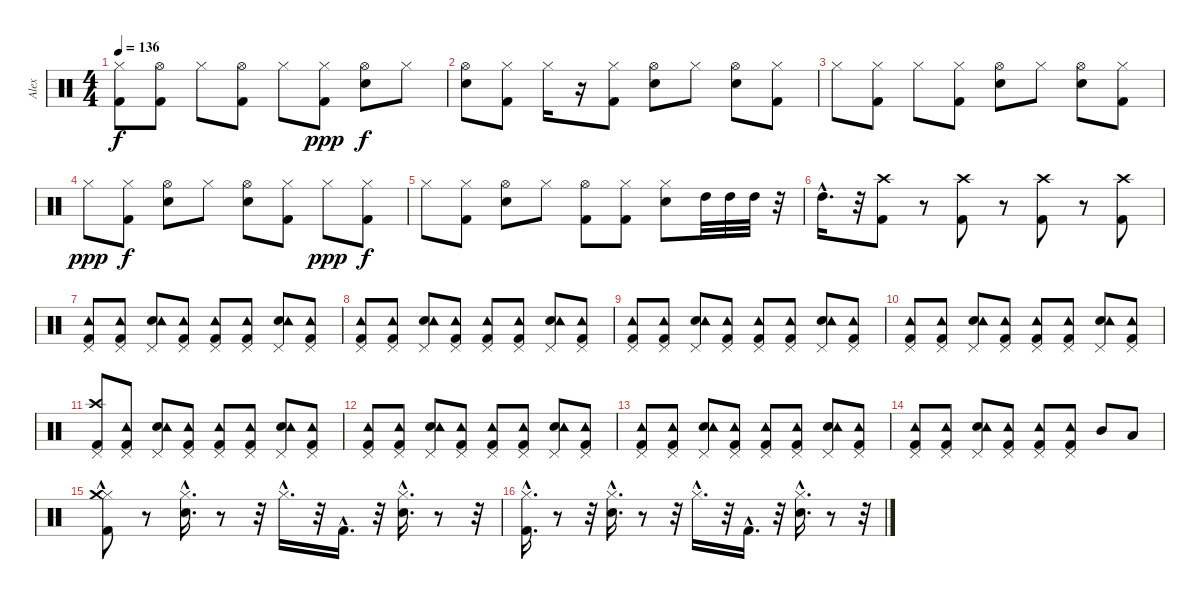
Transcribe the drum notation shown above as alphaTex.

\track ("Alex" "Alex") {instrument percussion}
\staff {score}
\articulation defaults
\ts (4 4)
\tempo 136
\clef neutral
\ks c
("Kick (hit) 2" "Hi-Hat (closed)").8{dy f} ("Kick (hit) 2" "Hi-Hat (open)").8 "Hi-Hat (closed)".8 ("Kick (hit) 2" "Hi-Hat (open)").8 "Hi-Hat (closed)".8 ("Hi-Hat (closed)" "Kick (hit) 2").8{dy ppp} ("Snare (hit) 2" "Hi-Hat (open)").8{dy f} "Hi-Hat (closed)".8 |
("Snare (hit) 2" "Hi-Hat (open)").8 ("Kick (hit) 2" "Hi-Hat (closed)").8 "Hi-Hat (closed)".16 r.16 ("Hi-Hat (closed)" "Kick (hit) 2").8 ("Hi-Hat (open)" "Snare (hit) 2").8 "Hi-Hat (closed)".8 ("Snare (hit) 2" "Hi-Hat (open)").8 ("Kick (hit) 2" "Hi-Hat (closed)").8 |
"Hi-Hat (closed)".8 ("Hi-Hat (closed)" "Kick (hit) 2").8 "Hi-Hat (closed)".8 ("Hi-Hat (closed)" "Kick (hit) 2").8 ("Hi-Hat (open)" "Snare (hit) 2").8 "Hi-Hat (closed)".8 ("Hi-Hat (open)" "Snare (hit) 2").8 ("Hi-Hat (closed)" "Kick (hit) 2").8 |
"Hi-Hat (closed)".8{dy ppp} ("Hi-Hat (closed)" "Kick (hit) 2").8{dy f} ("Snare (hit) 2" "Hi-Hat (open)").8 "Hi-Hat (closed)".8 ("Hi-Hat (open)" "Snare (hit) 2").8 ("Hi-Hat (closed)" "Kick (hit) 2").8 "Hi-Hat (closed)".8{dy ppp} ("Hi-Hat (closed)" "Kick (hit) 2").8{dy f} |
"Hi-Hat (closed)".8 ("Hi-Hat (closed)" "Kick (hit) 2").8 ("Snare (hit) 2" "Hi-Hat (open)").8 "Hi-Hat (closed)".8 ("Hi-Hat (open)" "Kick (hit) 2").8 ("Hi-Hat (closed)" "Kick (hit) 2").8 ("Hi-Hat (closed)" "Snare (hit) 2").8 "High Tom (hit)".32 "High Tom (hit)".32 "High Tom (hit)".32 r.32 |
"High Tom (hit)"{hac}.16{d} r.32 ("Kick (hit) 2" "Crash high (hit)").8 r.8 ("Crash high (hit)" "Kick (hit) 2").8 r.8 ("Crash high (hit)" "Kick (hit) 2").8 r.8 ("Crash high (hit)" "Kick (hit) 2").8 |
("Kick (hit) 2" "Pedal Hi-Hat (hit)" "Tambourine (hit)").8 ("Kick (hit) 2" "Pedal Hi-Hat (hit)" "Tambourine (hit)").8 ("Snare (hit) 2" "Pedal Hi-Hat (hit)" "Tambourine (hit)").8 ("Kick (hit) 2" "Pedal Hi-Hat (hit)" "Tambourine (hit)").8 ("Kick (hit) 2" "Pedal Hi-Hat (hit)" "Tambourine (hit)").8 ("Kick (hit) 2" "Pedal Hi-Hat (hit)" "Tambourine (hit)").8 ("Pedal Hi-Hat (hit)" "Snare (hit) 2" "Tambourine (hit)").8 ("Kick (hit) 2" "Pedal Hi-Hat (hit)" "Tambourine (hit)").8 |
("Kick (hit) 2" "Pedal Hi-Hat (hit)" "Tambourine (hit)").8 ("Kick (hit) 2" "Pedal Hi-Hat (hit)" "Tambourine (hit)").8 ("Snare (hit) 2" "Pedal Hi-Hat (hit)" "Tambourine (hit)").8 ("Kick (hit) 2" "Pedal Hi-Hat (hit)" "Tambourine (hit)").8 ("Kick (hit) 2" "Pedal Hi-Hat (hit)" "Tambourine (hit)").8 ("Kick (hit) 2" "Pedal Hi-Hat (hit)" "Tambourine (hit)").8 ("Snare (hit) 2" "Pedal Hi-Hat (hit)" "Tambourine (hit)").8 ("Kick (hit) 2" "Pedal Hi-Hat (hit)" "Tambourine (hit)").8 |
("Kick (hit) 2" "Pedal Hi-Hat (hit)" "Tambourine (hit)").8 ("Kick (hit) 2" "Pedal Hi-Hat (hit)" "Tambourine (hit)").8 ("Snare (hit) 2" "Pedal Hi-Hat (hit)" "Tambourine (hit)").8 ("Kick (hit) 2" "Pedal Hi-Hat (hit)" "Tambourine (hit)").8 ("Pedal Hi-Hat (hit)" "Kick (hit) 2" "Tambourine (hit)").8 ("Kick (hit) 2" "Pedal Hi-Hat (hit)" "Tambourine (hit)").8 ("Snare (hit) 2" "Pedal Hi-Hat (hit)" "Tambourine (hit)").8 ("Kick (hit) 2" "Pedal Hi-Hat (hit)" "Tambourine (hit)").8 |
("Kick (hit) 2" "Pedal Hi-Hat (hit)" "Tambourine (hit)").8 ("Kick (hit) 2" "Pedal Hi-Hat (hit)" "Tambourine (hit)").8 ("Snare (hit) 2" "Pedal Hi-Hat (hit)" "Tambourine (hit)").8 ("Kick (hit) 2" "Pedal Hi-Hat (hit)" "Tambourine (hit)").8 ("Kick (hit) 2" "Pedal Hi-Hat (hit)" "Tambourine (hit)").8 ("Kick (hit) 2" "Pedal Hi-Hat (hit)" "Tambourine (hit)").8 ("Snare (hit) 2" "Pedal Hi-Hat (hit)" "Tambourine (hit)").8 ("Kick (hit) 2" "Pedal Hi-Hat (hit)" "Tambourine (hit)").8 |
("Kick (hit) 2" "Crash high (hit)" "Pedal Hi-Hat (hit)").8 ("Kick (hit) 2" "Pedal Hi-Hat (hit)" "Tambourine (hit)").8 ("Snare (hit) 2" "Pedal Hi-Hat (hit)" "Tambourine (hit)").8 ("Kick (hit) 2" "Pedal Hi-Hat (hit)" "Tambourine (hit)").8 ("Kick (hit) 2" "Pedal Hi-Hat (hit)" "Tambourine (hit)").8 ("Kick (hit) 2" "Pedal Hi-Hat (hit)" "Tambourine (hit)").8 ("Snare (hit) 2" "Pedal Hi-Hat (hit)" "Tambourine (hit)").8 ("Kick (hit) 2" "Pedal Hi-Hat (hit)" "Tambourine (hit)").8 |
("Kick (hit) 2" "Pedal Hi-Hat (hit)" "Tambourine (hit)").8 ("Kick (hit) 2" "Pedal Hi-Hat (hit)" "Tambourine (hit)").8 ("Snare (hit) 2" "Pedal Hi-Hat (hit)" "Tambourine (hit)").8 ("Kick (hit) 2" "Pedal Hi-Hat (hit)" "Tambourine (hit)").8 ("Kick (hit) 2" "Pedal Hi-Hat (hit)" "Tambourine (hit)").8 ("Kick (hit) 2" "Pedal Hi-Hat (hit)" "Tambourine (hit)").8 ("Snare (hit) 2" "Pedal Hi-Hat (hit)" "Tambourine (hit)").8 ("Kick (hit) 2" "Pedal Hi-Hat (hit)" "Tambourine (hit)").8 |
("Kick (hit) 2" "Pedal Hi-Hat (hit)" "Tambourine (hit)").8 ("Kick (hit) 2" "Pedal Hi-Hat (hit)" "Tambourine (hit)").8 ("Snare (hit) 2" "Pedal Hi-Hat (hit)" "Tambourine (hit)").8 ("Kick (hit) 2" "Pedal Hi-Hat (hit)" "Tambourine (hit)").8 ("Kick (hit) 2" "Pedal Hi-Hat (hit)" "Tambourine (hit)").8 ("Kick (hit) 2" "Pedal Hi-Hat (hit)" "Tambourine (hit)").8 ("Snare (hit) 2" "Pedal Hi-Hat (hit)" "Tambourine (hit)").8 ("Kick (hit) 2" "Pedal Hi-Hat (hit)" "Tambourine (hit)").8 |
("Kick (hit) 2" "Pedal Hi-Hat (hit)" "Tambourine (hit)").8 ("Kick (hit) 2" "Pedal Hi-Hat (hit)" "Tambourine (hit)").8 ("Snare (hit) 2" "Pedal Hi-Hat (hit)" "Tambourine (hit)").8 ("Kick (hit) 2" "Pedal Hi-Hat (hit)" "Tambourine (hit)").8 ("Kick (hit) 2" "Pedal Hi-Hat (hit)" "Tambourine (hit)").8 ("Kick (hit) 2" "Pedal Hi-Hat (hit)" "Tambourine (hit)").8 "Mid Tom (hit)".8 "Low Tom (hit)".8 |
("Hi-Hat (closed)"{hac} "Kick (hit) 2" "Crash medium (hit)").8 r.8 ("Hi-Hat (closed)"{hac} "Snare (hit) 2"{hac}).16{d} r.8 r.32 "Hi-Hat (closed)"{hac}.16{d} r.32 "Kick (hit) 2"{hac}.16{d} r.32 ("Hi-Hat (closed)"{hac} "Snare (hit) 2"{hac}).16{d} r.8 r.32 |
("Hi-Hat (closed)"{hac} "Kick (hit) 2"{hac}).16{d} r.8 r.32 ("Hi-Hat (closed)"{hac} "Snare (hit) 2"{hac}).16{d} r.8 r.32 "Hi-Hat (closed)"{hac}.16{d} r.32 "Kick (hit) 2"{hac}.16{d} r.32 ("Hi-Hat (closed)"{hac} "Snare (hit) 2"{hac}).16{d} r.8 r.32
